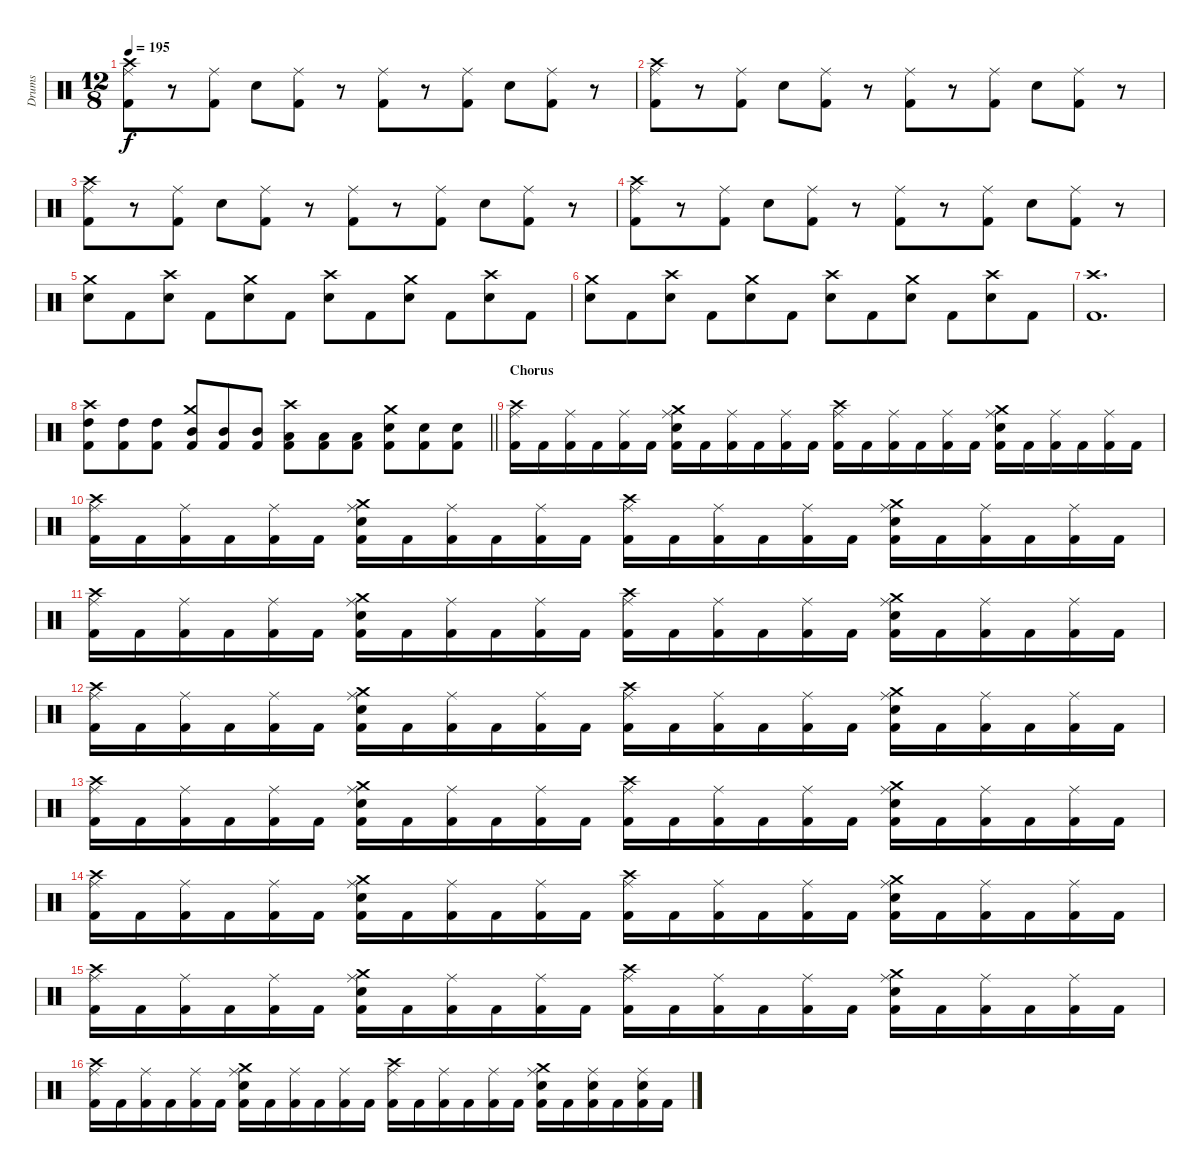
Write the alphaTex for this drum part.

\track ("Drums" "Drums") {instrument percussion}
\staff {score}
\articulation defaults
\ts (12 8)
\tempo 195
\clef neutral
\ks c
("Crash high (hit)" "Ride (middle)" "Kick (hit) 2").8{dy f} r.8 ("Ride (middle)" "Kick (hit) 2").8 "Snare (hit) 2".8 ("Ride (middle)" "Kick (hit) 2").8 r.8 ("Ride (middle)" "Kick (hit) 2").8 r.8 ("Ride (middle)" "Kick (hit) 2").8 "Snare (hit) 2".8 ("Ride (middle)" "Kick (hit) 2").8 r.8 |
("Crash high (hit)" "Ride (middle)" "Kick (hit) 2").8 r.8 ("Ride (middle)" "Kick (hit) 2").8 "Snare (hit) 2".8 ("Ride (middle)" "Kick (hit) 2").8 r.8 ("Ride (middle)" "Kick (hit) 2").8 r.8 ("Ride (middle)" "Kick (hit) 2").8 "Snare (hit) 2".8 ("Ride (middle)" "Kick (hit) 2").8 r.8 |
("Crash high (hit)" "Ride (middle)" "Kick (hit) 2").8 r.8 ("Ride (middle)" "Kick (hit) 2").8 "Snare (hit) 2".8 ("Ride (middle)" "Kick (hit) 2").8 r.8 ("Ride (middle)" "Kick (hit) 2").8 r.8 ("Ride (middle)" "Kick (hit) 2").8 "Snare (hit) 2".8 ("Ride (middle)" "Kick (hit) 2").8 r.8 |
("Crash high (hit)" "Ride (middle)" "Kick (hit) 2").8 r.8 ("Ride (middle)" "Kick (hit) 2").8 "Snare (hit) 2".8 ("Ride (middle)" "Kick (hit) 2").8 r.8 ("Ride (middle)" "Kick (hit) 2").8 r.8 ("Ride (middle)" "Kick (hit) 2").8 "Snare (hit) 2".8 ("Ride (middle)" "Kick (hit) 2").8 r.8 |
("Crash medium (hit)" "Snare (hit) 2").8 "Kick (hit) 2".8 ("Crash high (hit)" "Snare (hit) 2").8 "Kick (hit) 2".8 ("Crash medium (hit)" "Snare (hit) 2").8 "Kick (hit) 2".8 ("Crash high (hit)" "Snare (hit) 2").8 "Kick (hit) 2".8 ("Crash medium (hit)" "Snare (hit) 2").8 "Kick (hit) 2".8 ("Crash high (hit)" "Snare (hit) 2").8 "Kick (hit) 2".8 |
("Crash medium (hit)" "Snare (hit) 2").8 "Kick (hit) 2".8 ("Crash high (hit)" "Snare (hit) 2").8 "Kick (hit) 2".8 ("Crash medium (hit)" "Snare (hit) 2").8 "Kick (hit) 2".8 ("Crash high (hit)" "Snare (hit) 2").8 "Kick (hit) 2".8 ("Crash medium (hit)" "Snare (hit) 2").8 "Kick (hit) 2".8 ("Crash high (hit)" "Snare (hit) 2").8 "Kick (hit) 2".8 |
("Crash high (hit)" "Kick (hit) 2").1{d} |
\barLineRight lightlight
("Crash high (hit)" "High Tom (hit)" "Kick (hit) 2").8 ("High Tom (hit)" "Kick (hit) 2").8 ("High Tom (hit)" "Kick (hit) 2").8 ("Crash medium (hit)" "Mid Tom (hit)" "Kick (hit) 2").8 ("Mid Tom (hit)" "Kick (hit) 2").8 ("Mid Tom (hit)" "Kick (hit) 2").8 ("Crash high (hit)" "Low Tom (hit)" "Kick (hit) 2").8 ("Low Tom (hit)" "Kick (hit) 2").8 ("Low Tom (hit)" "Kick (hit) 2").8 ("Crash medium (hit)" "Snare (hit) 2" "Kick (hit) 2").8 ("Snare (hit) 2" "Kick (hit) 2").8 ("Snare (hit) 2" "Kick (hit) 2").8 |
\section ("" "Chorus")
("Crash high (hit)" "Ride (middle)" "Kick (hit) 2").16 "Kick (hit) 2".16 ("Ride (middle)" "Kick (hit) 2").16 "Kick (hit) 2".16 ("Ride (middle)" "Kick (hit) 2").16 "Kick (hit) 2".16 ("Crash medium (hit)" "Ride (middle)" "Snare (hit) 2" "Kick (hit) 2").16 "Kick (hit) 2".16 ("Ride (middle)" "Kick (hit) 2").16 "Kick (hit) 2".16 ("Ride (middle)" "Kick (hit) 2").16 "Kick (hit) 2".16 ("Crash high (hit)" "Ride (middle)" "Kick (hit) 2").16 "Kick (hit) 2".16 ("Ride (middle)" "Kick (hit) 2").16 "Kick (hit) 2".16 ("Ride (middle)" "Kick (hit) 2").16 "Kick (hit) 2".16 ("Crash medium (hit)" "Ride (middle)" "Snare (hit) 2" "Kick (hit) 2").16 "Kick (hit) 2".16 ("Ride (middle)" "Kick (hit) 2").16 "Kick (hit) 2".16 ("Ride (middle)" "Kick (hit) 2").16 "Kick (hit) 2".16 |
("Crash high (hit)" "Ride (middle)" "Kick (hit) 2").16 "Kick (hit) 2".16 ("Ride (middle)" "Kick (hit) 2").16 "Kick (hit) 2".16 ("Ride (middle)" "Kick (hit) 2").16 "Kick (hit) 2".16 ("Crash medium (hit)" "Ride (middle)" "Snare (hit) 2" "Kick (hit) 2").16 "Kick (hit) 2".16 ("Ride (middle)" "Kick (hit) 2").16 "Kick (hit) 2".16 ("Ride (middle)" "Kick (hit) 2").16 "Kick (hit) 2".16 ("Crash high (hit)" "Ride (middle)" "Kick (hit) 2").16 "Kick (hit) 2".16 ("Ride (middle)" "Kick (hit) 2").16 "Kick (hit) 2".16 ("Ride (middle)" "Kick (hit) 2").16 "Kick (hit) 2".16 ("Crash medium (hit)" "Ride (middle)" "Snare (hit) 2" "Kick (hit) 2").16 "Kick (hit) 2".16 ("Ride (middle)" "Kick (hit) 2").16 "Kick (hit) 2".16 ("Ride (middle)" "Kick (hit) 2").16 "Kick (hit) 2".16 |
("Crash high (hit)" "Ride (middle)" "Kick (hit) 2").16 "Kick (hit) 2".16 ("Ride (middle)" "Kick (hit) 2").16 "Kick (hit) 2".16 ("Ride (middle)" "Kick (hit) 2").16 "Kick (hit) 2".16 ("Crash medium (hit)" "Ride (middle)" "Snare (hit) 2" "Kick (hit) 2").16 "Kick (hit) 2".16 ("Ride (middle)" "Kick (hit) 2").16 "Kick (hit) 2".16 ("Ride (middle)" "Kick (hit) 2").16 "Kick (hit) 2".16 ("Crash high (hit)" "Ride (middle)" "Kick (hit) 2").16 "Kick (hit) 2".16 ("Ride (middle)" "Kick (hit) 2").16 "Kick (hit) 2".16 ("Ride (middle)" "Kick (hit) 2").16 "Kick (hit) 2".16 ("Crash medium (hit)" "Ride (middle)" "Snare (hit) 2" "Kick (hit) 2").16 "Kick (hit) 2".16 ("Ride (middle)" "Kick (hit) 2").16 "Kick (hit) 2".16 ("Ride (middle)" "Kick (hit) 2").16 "Kick (hit) 2".16 |
("Crash high (hit)" "Ride (middle)" "Kick (hit) 2").16 "Kick (hit) 2".16 ("Ride (middle)" "Kick (hit) 2").16 "Kick (hit) 2".16 ("Ride (middle)" "Kick (hit) 2").16 "Kick (hit) 2".16 ("Crash medium (hit)" "Ride (middle)" "Snare (hit) 2" "Kick (hit) 2").16 "Kick (hit) 2".16 ("Ride (middle)" "Kick (hit) 2").16 "Kick (hit) 2".16 ("Ride (middle)" "Kick (hit) 2").16 "Kick (hit) 2".16 ("Crash high (hit)" "Ride (middle)" "Kick (hit) 2").16 "Kick (hit) 2".16 ("Ride (middle)" "Kick (hit) 2").16 "Kick (hit) 2".16 ("Ride (middle)" "Kick (hit) 2").16 "Kick (hit) 2".16 ("Crash medium (hit)" "Ride (middle)" "Snare (hit) 2" "Kick (hit) 2").16 "Kick (hit) 2".16 ("Ride (middle)" "Kick (hit) 2").16 "Kick (hit) 2".16 ("Ride (middle)" "Kick (hit) 2").16 "Kick (hit) 2".16 |
("Crash high (hit)" "Ride (middle)" "Kick (hit) 2").16 "Kick (hit) 2".16 ("Ride (middle)" "Kick (hit) 2").16 "Kick (hit) 2".16 ("Ride (middle)" "Kick (hit) 2").16 "Kick (hit) 2".16 ("Crash medium (hit)" "Ride (middle)" "Snare (hit) 2" "Kick (hit) 2").16 "Kick (hit) 2".16 ("Ride (middle)" "Kick (hit) 2").16 "Kick (hit) 2".16 ("Ride (middle)" "Kick (hit) 2").16 "Kick (hit) 2".16 ("Crash high (hit)" "Ride (middle)" "Kick (hit) 2").16 "Kick (hit) 2".16 ("Ride (middle)" "Kick (hit) 2").16 "Kick (hit) 2".16 ("Ride (middle)" "Kick (hit) 2").16 "Kick (hit) 2".16 ("Crash medium (hit)" "Ride (middle)" "Snare (hit) 2" "Kick (hit) 2").16 "Kick (hit) 2".16 ("Ride (middle)" "Kick (hit) 2").16 "Kick (hit) 2".16 ("Ride (middle)" "Kick (hit) 2").16 "Kick (hit) 2".16 |
("Crash high (hit)" "Ride (middle)" "Kick (hit) 2").16 "Kick (hit) 2".16 ("Ride (middle)" "Kick (hit) 2").16 "Kick (hit) 2".16 ("Ride (middle)" "Kick (hit) 2").16 "Kick (hit) 2".16 ("Crash medium (hit)" "Ride (middle)" "Snare (hit) 2" "Kick (hit) 2").16 "Kick (hit) 2".16 ("Ride (middle)" "Kick (hit) 2").16 "Kick (hit) 2".16 ("Ride (middle)" "Kick (hit) 2").16 "Kick (hit) 2".16 ("Crash high (hit)" "Ride (middle)" "Kick (hit) 2").16 "Kick (hit) 2".16 ("Ride (middle)" "Kick (hit) 2").16 "Kick (hit) 2".16 ("Ride (middle)" "Kick (hit) 2").16 "Kick (hit) 2".16 ("Crash medium (hit)" "Ride (middle)" "Snare (hit) 2" "Kick (hit) 2").16 "Kick (hit) 2".16 ("Ride (middle)" "Kick (hit) 2").16 "Kick (hit) 2".16 ("Ride (middle)" "Kick (hit) 2").16 "Kick (hit) 2".16 |
("Crash high (hit)" "Ride (middle)" "Kick (hit) 2").16 "Kick (hit) 2".16 ("Ride (middle)" "Kick (hit) 2").16 "Kick (hit) 2".16 ("Ride (middle)" "Kick (hit) 2").16 "Kick (hit) 2".16 ("Crash medium (hit)" "Ride (middle)" "Snare (hit) 2" "Kick (hit) 2").16 "Kick (hit) 2".16 ("Ride (middle)" "Kick (hit) 2").16 "Kick (hit) 2".16 ("Ride (middle)" "Kick (hit) 2").16 "Kick (hit) 2".16 ("Crash high (hit)" "Ride (middle)" "Kick (hit) 2").16 "Kick (hit) 2".16 ("Ride (middle)" "Kick (hit) 2").16 "Kick (hit) 2".16 ("Ride (middle)" "Kick (hit) 2").16 "Kick (hit) 2".16 ("Crash medium (hit)" "Ride (middle)" "Snare (hit) 2" "Kick (hit) 2").16 "Kick (hit) 2".16 ("Ride (middle)" "Kick (hit) 2").16 "Kick (hit) 2".16 ("Ride (middle)" "Kick (hit) 2").16 "Kick (hit) 2".16 |
("Crash high (hit)" "Ride (middle)" "Kick (hit) 2").16 "Kick (hit) 2".16 ("Ride (middle)" "Kick (hit) 2").16 "Kick (hit) 2".16 ("Ride (middle)" "Kick (hit) 2").16 "Kick (hit) 2".16 ("Crash medium (hit)" "Ride (middle)" "Snare (hit) 2" "Kick (hit) 2").16 "Kick (hit) 2".16 ("Ride (middle)" "Kick (hit) 2").16 "Kick (hit) 2".16 ("Ride (middle)" "Kick (hit) 2").16 "Kick (hit) 2".16 ("Crash high (hit)" "Ride (middle)" "Kick (hit) 2").16 "Kick (hit) 2".16 ("Ride (middle)" "Kick (hit) 2").16 "Kick (hit) 2".16 ("Ride (middle)" "Kick (hit) 2").16 "Kick (hit) 2".16 ("Crash medium (hit)" "Ride (middle)" "Snare (hit) 2" "Kick (hit) 2").16 "Kick (hit) 2".16 ("Ride (middle)" "Snare (hit) 2" "Kick (hit) 2").16 "Kick (hit) 2".16 ("Ride (middle)" "Snare (hit) 2" "Kick (hit) 2").16 "Kick (hit) 2".16
